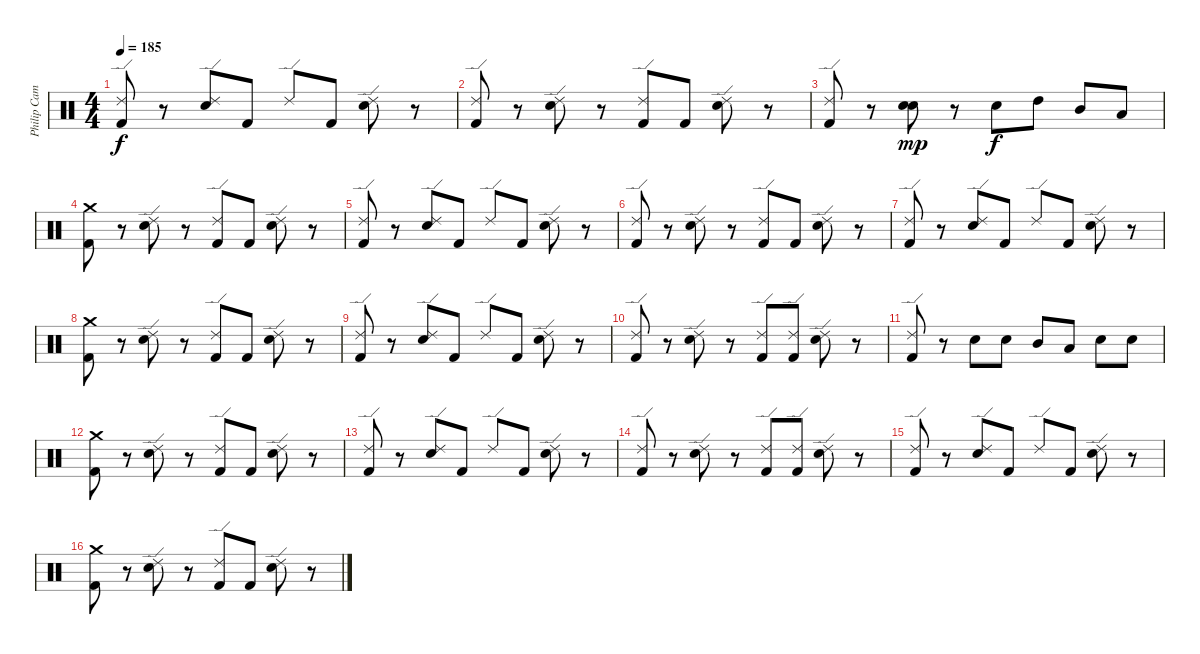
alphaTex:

\track ("Philip Campbell" "Philip Cam") {instrument percussion}
\staff {score}
\articulation defaults
\ts (4 4)
\tempo 185
\clef neutral
\ks c
("Ride (edge) 2" "Kick (hit) 2").8{dy f} r.8 ("Ride (edge) 2" "Electric Snare (hit)").8 "Kick (hit) 2".8 "Ride (edge) 2".8 "Kick (hit) 2".8 ("Ride (edge) 2" "Electric Snare (hit)").8 r.8 |
("Ride (edge) 2" "Kick (hit) 2").8 r.8 ("Ride (edge) 2" "Electric Snare (hit)").8 r.8 ("Ride (edge) 2" "Kick (hit) 2").8 "Kick (hit) 2".8 ("Ride (edge) 2" "Electric Snare (hit)").8 r.8 |
("Ride (edge) 2" "Kick (hit) 2").8 r.8 ("Electric Snare (hit)" "Electric Snare (hit)").8{dy mp} r.8 "Electric Snare (hit)".8{dy f} "High Tom (hit)".8 "Mid Tom (hit)".8 "Low Tom (hit)".8 |
("Crash medium (hit)" "Kick (hit) 2").8 r.8 ("Ride (edge) 2" "Electric Snare (hit)").8 r.8 ("Ride (edge) 2" "Kick (hit) 2").8 "Kick (hit) 2".8 ("Ride (edge) 2" "Electric Snare (hit)").8 r.8 |
("Ride (edge) 2" "Kick (hit) 2").8 r.8 ("Ride (edge) 2" "Electric Snare (hit)").8 "Kick (hit) 2".8 "Ride (edge) 2".8 "Kick (hit) 2".8 ("Ride (edge) 2" "Electric Snare (hit)").8 r.8 |
("Ride (edge) 2" "Kick (hit) 2").8 r.8 ("Ride (edge) 2" "Electric Snare (hit)").8 r.8 ("Ride (edge) 2" "Kick (hit) 2").8 "Kick (hit) 2".8 ("Ride (edge) 2" "Electric Snare (hit)").8 r.8 |
("Ride (edge) 2" "Kick (hit) 2").8 r.8 ("Ride (edge) 2" "Electric Snare (hit)").8 "Kick (hit) 2".8 "Ride (edge) 2".8 "Kick (hit) 2".8 ("Ride (edge) 2" "Electric Snare (hit)").8 r.8 |
("Crash medium (hit)" "Kick (hit) 2").8 r.8 ("Ride (edge) 2" "Electric Snare (hit)").8 r.8 ("Ride (edge) 2" "Kick (hit) 2").8 "Kick (hit) 2".8 ("Ride (edge) 2" "Electric Snare (hit)").8 r.8 |
("Ride (edge) 2" "Kick (hit) 2").8 r.8 ("Ride (edge) 2" "Electric Snare (hit)").8 "Kick (hit) 2".8 "Ride (edge) 2".8 "Kick (hit) 2".8 ("Ride (edge) 2" "Electric Snare (hit)").8 r.8 |
("Ride (edge) 2" "Kick (hit) 2").8 r.8 ("Ride (edge) 2" "Electric Snare (hit)").8 r.8 ("Ride (edge) 2" "Kick (hit) 2").8 ("Ride (edge) 2" "Kick (hit) 2").8 ("Ride (edge) 2" "Electric Snare (hit)").8 r.8 |
("Ride (edge) 2" "Kick (hit) 2").8 r.8 "Electric Snare (hit)".8 "Electric Snare (hit)".8 "Mid Tom (hit)".8 "Low Tom (hit)".8 "Electric Snare (hit)".8 "Electric Snare (hit)".8 |
("Crash medium (hit)" "Kick (hit) 2").8 r.8 ("Ride (edge) 2" "Electric Snare (hit)").8 r.8 ("Ride (edge) 2" "Kick (hit) 2").8 "Kick (hit) 2".8 ("Ride (edge) 2" "Electric Snare (hit)").8 r.8 |
("Ride (edge) 2" "Kick (hit) 2").8 r.8 ("Ride (edge) 2" "Electric Snare (hit)").8 "Kick (hit) 2".8 "Ride (edge) 2".8 "Kick (hit) 2".8 ("Ride (edge) 2" "Electric Snare (hit)").8 r.8 |
("Ride (edge) 2" "Kick (hit) 2").8 r.8 ("Ride (edge) 2" "Electric Snare (hit)").8 r.8 ("Ride (edge) 2" "Kick (hit) 2").8 ("Ride (edge) 2" "Kick (hit) 2").8 ("Ride (edge) 2" "Electric Snare (hit)").8 r.8 |
("Ride (edge) 2" "Kick (hit) 2").8 r.8 ("Ride (edge) 2" "Electric Snare (hit)").8 "Kick (hit) 2".8 "Ride (edge) 2".8 "Kick (hit) 2".8 ("Ride (edge) 2" "Electric Snare (hit)").8 r.8 |
("Crash medium (hit)" "Kick (hit) 2").8 r.8 ("Ride (edge) 2" "Electric Snare (hit)").8 r.8 ("Ride (edge) 2" "Kick (hit) 2").8 "Kick (hit) 2".8 ("Ride (edge) 2" "Electric Snare (hit)").8 r.8
